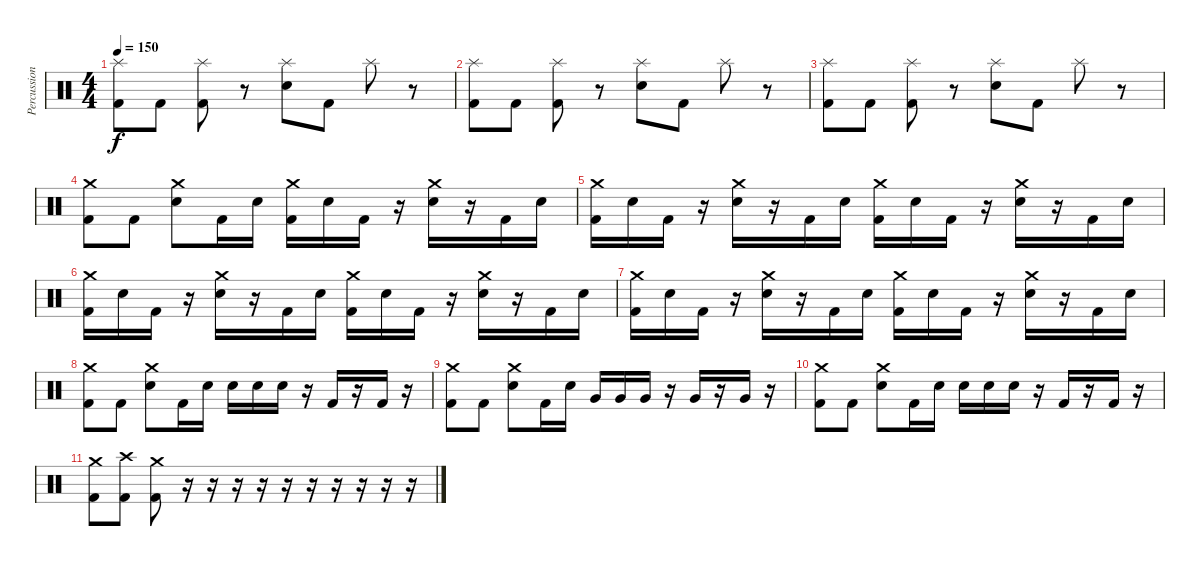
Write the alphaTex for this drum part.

\track ("Percussion" "Percussion") {instrument percussion}
\staff {score}
\articulation defaults
\ts (4 4)
\tempo 150
\clef neutral
\ks c
("Splash (hit)" "Kick (hit) 2").8{dy f} "Kick (hit) 2".8 ("Splash (hit)" "Kick (hit) 2").8 r.8 ("Splash (hit)" "Electric Snare (hit)").8 "Kick (hit) 2".8 "Splash (hit)".8 r.8 |
("Splash (hit)" "Kick (hit) 2").8 "Kick (hit) 2".8 ("Splash (hit)" "Kick (hit) 2").8 r.8 ("Splash (hit)" "Electric Snare (hit)").8 "Kick (hit) 2".8 "Splash (hit)".8 r.8 |
("Splash (hit)" "Kick (hit) 2").8 "Kick (hit) 2".8 ("Splash (hit)" "Kick (hit) 2").8 r.8 ("Splash (hit)" "Electric Snare (hit)").8 "Kick (hit) 2".8 "Splash (hit)".8 r.8 |
("Kick (hit) 2" "Crash medium (hit)").8 "Kick (hit) 2".8 ("Electric Snare (hit)" "Crash medium (hit)").8 "Kick (hit) 2".16 "Electric Snare (hit)".16 ("Kick (hit) 2" "Crash medium (hit)").16 "Electric Snare (hit)".16 "Kick (hit) 2".16 r.16 ("Electric Snare (hit)" "Crash medium (hit)").16 r.16 "Kick (hit) 2".16 "Electric Snare (hit)".16 |
("Kick (hit) 2" "Crash medium (hit)").16 "Electric Snare (hit)".16 "Kick (hit) 2".16 r.16 ("Electric Snare (hit)" "Crash medium (hit)").16 r.16 "Kick (hit) 2".16 "Electric Snare (hit)".16 ("Kick (hit) 2" "Crash medium (hit)").16 "Electric Snare (hit)".16 "Kick (hit) 2".16 r.16 ("Electric Snare (hit)" "Crash medium (hit)").16 r.16 "Kick (hit) 2".16 "Electric Snare (hit)".16 |
("Kick (hit) 2" "Crash medium (hit)").16 "Electric Snare (hit)".16 "Kick (hit) 2".16 r.16 ("Electric Snare (hit)" "Crash medium (hit)").16 r.16 "Kick (hit) 2".16 "Electric Snare (hit)".16 ("Kick (hit) 2" "Crash medium (hit)").16 "Electric Snare (hit)".16 "Kick (hit) 2".16 r.16 ("Electric Snare (hit)" "Crash medium (hit)").16 r.16 "Kick (hit) 2".16 "Electric Snare (hit)".16 |
("Kick (hit) 2" "Crash medium (hit)").16 "Electric Snare (hit)".16 "Kick (hit) 2".16 r.16 ("Electric Snare (hit)" "Crash medium (hit)").16 r.16 "Kick (hit) 2".16 "Electric Snare (hit)".16 ("Kick (hit) 2" "Crash medium (hit)").16 "Electric Snare (hit)".16 "Kick (hit) 2".16 r.16 ("Electric Snare (hit)" "Crash medium (hit)").16 r.16 "Kick (hit) 2".16 "Electric Snare (hit)".16 |
("Kick (hit) 2" "Crash medium (hit)").8 "Kick (hit) 2".8 ("Electric Snare (hit)" "Crash medium (hit)").8 "Kick (hit) 2".16 "Electric Snare (hit)".16 "Electric Snare (hit)".16 "Electric Snare (hit)".16 "Electric Snare (hit)".16 r.16 "Kick (hit) 2".16 r.16 "Kick (hit) 2".16 r.16 |
("Kick (hit) 2" "Crash medium (hit)").8 "Kick (hit) 2".8 ("Electric Snare (hit)" "Crash medium (hit)").8 "Kick (hit) 2".16 "Electric Snare (hit)".16 "Very Low Tom (hit)".16 "Very Low Tom (hit)".16 "Very Low Tom (hit)".16 r.16 "Very Low Tom (hit)".16 r.16 "Very Low Tom (hit)".16 r.16 |
("Kick (hit) 2" "Crash medium (hit)").8 "Kick (hit) 2".8 ("Electric Snare (hit)" "Crash medium (hit)").8 "Kick (hit) 2".16 "Electric Snare (hit)".16 "Electric Snare (hit)".16 "Electric Snare (hit)".16 "Electric Snare (hit)".16 r.16 "Kick (hit) 2".16 r.16 "Kick (hit) 2".16 r.16 |
("Kick (hit) 2" "Crash medium (hit)").8 ("Kick (hit) 2" "Crash high (hit)").8 ("Kick (hit) 2" "Crash medium (hit)").8 r.16 r.16 r.16 r.16 r.16 r.16 r.16 r.16 r.16 r.16
